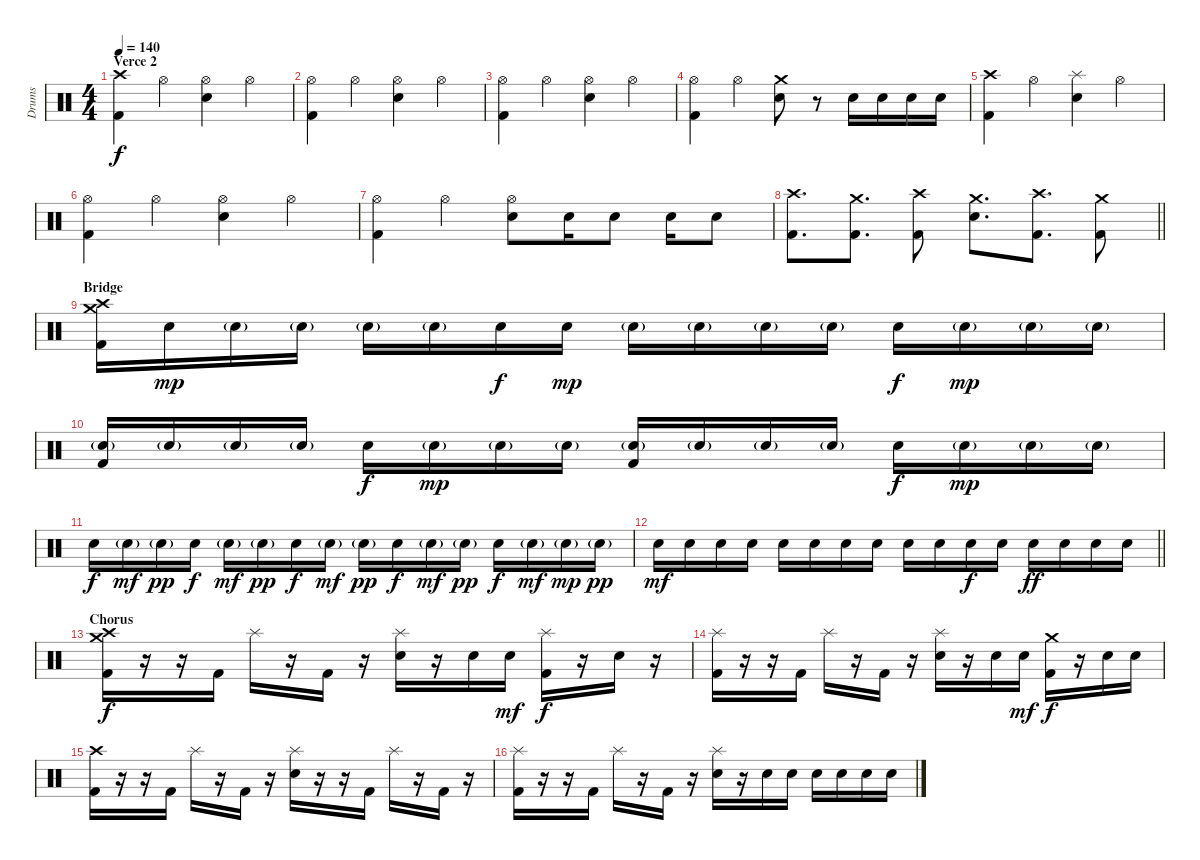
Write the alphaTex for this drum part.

\track ("Drums" "Drums") {instrument percussion}
\staff {score}
\articulation defaults
\ts (4 4)
\section ("" "Verce 2")
\tempo 140
\clef neutral
\ks c
("Crash high (hit)" "Kick (hit) 2").4{dy f} "Hi-Hat (open)".4 ("Hi-Hat (open)" "Electric Snare (hit)").4 "Hi-Hat (open)".4 |
("Hi-Hat (open)" "Kick (hit) 2").4 "Hi-Hat (open)".4 ("Hi-Hat (open)" "Electric Snare (hit)").4 "Hi-Hat (open)".4 |
("Hi-Hat (open)" "Kick (hit) 2").4 "Hi-Hat (open)".4 ("Hi-Hat (open)" "Electric Snare (hit)").4 "Hi-Hat (open)".4 |
("Hi-Hat (open)" "Kick (hit) 2").4 "Hi-Hat (open)".4 ("Crash medium (hit)" "Electric Snare (hit)").8 r.8 "Electric Snare (hit)".16 "Electric Snare (hit)".16 "Electric Snare (hit)".16 "Electric Snare (hit)".16 |
("Crash high (hit)" "Kick (hit) 2").4 "Hi-Hat (open)".4 ("Splash (hit)" "Electric Snare (hit)").4 "Hi-Hat (open)".4 |
("Hi-Hat (open)" "Kick (hit) 2").4 "Hi-Hat (open)".4 ("Hi-Hat (open)" "Electric Snare (hit)").4 "Hi-Hat (open)".4 |
("Hi-Hat (open)" "Kick (hit) 2").4 "Hi-Hat (open)".4 ("Hi-Hat (open)" "Electric Snare (hit)").8 "Electric Snare (hit)".16 "Electric Snare (hit)".8 "Electric Snare (hit)".16 "Electric Snare (hit)".8 |
\barLineRight lightlight
("Crash high (hit)" "Kick (hit) 2").8{d} ("Crash medium (hit)" "Kick (hit) 2").8{d} ("Crash high (hit)" "Kick (hit) 2").8 ("Crash medium (hit)" "Electric Snare (hit)").8{d} ("Crash high (hit)" "Kick (hit) 2").8{d} ("Crash medium (hit)" "Kick (hit) 2").8 |
\section ("" "Bridge")
("Crash high (hit)" "Crash medium (hit)" "Kick (hit) 2").16 "Electric Snare (hit)".16{dy mp} "Electric Snare (hit)"{g}.16 "Electric Snare (hit)"{g}.16 "Electric Snare (hit)"{g}.16 "Electric Snare (hit)"{g}.16 "Electric Snare (hit)".16{dy f} "Electric Snare (hit)".16{dy mp} "Electric Snare (hit)"{g}.16 "Electric Snare (hit)"{g}.16 "Electric Snare (hit)"{g}.16 "Electric Snare (hit)"{g}.16 "Electric Snare (hit)".16{dy f} "Electric Snare (hit)"{g}.16{dy mp} "Electric Snare (hit)"{g}.16 "Electric Snare (hit)"{g}.16 |
("Electric Snare (hit)"{g} "Kick (hit) 2").16 "Electric Snare (hit)"{g}.16 "Electric Snare (hit)"{g}.16 "Electric Snare (hit)"{g}.16 "Electric Snare (hit)".16{dy f} "Electric Snare (hit)"{g}.16{dy mp} "Electric Snare (hit)"{g}.16 "Electric Snare (hit)"{g}.16 ("Electric Snare (hit)"{g} "Kick (hit) 2").16 "Electric Snare (hit)"{g}.16 "Electric Snare (hit)"{g}.16 "Electric Snare (hit)"{g}.16 "Electric Snare (hit)".16{dy f} "Electric Snare (hit)"{g}.16{dy mp} "Electric Snare (hit)"{g}.16 "Electric Snare (hit)"{g}.16 |
"Electric Snare (hit)".16{dy f} "Electric Snare (hit)"{g}.16{dy mf} "Electric Snare (hit)"{g}.16{dy pp} "Electric Snare (hit)".16{dy f} "Electric Snare (hit)"{g}.16{dy mf} "Electric Snare (hit)"{g}.16{dy pp} "Electric Snare (hit)".16{dy f} "Electric Snare (hit)"{g}.16{dy mf} "Electric Snare (hit)"{g}.16{dy pp} "Electric Snare (hit)".16{dy f} "Electric Snare (hit)"{g}.16{dy mf} "Electric Snare (hit)"{g}.16{dy pp} "Electric Snare (hit)".16{dy f} "Electric Snare (hit)"{g}.16{dy mf} "Electric Snare (hit)"{g}.16{dy mp} "Electric Snare (hit)"{g}.16{dy pp} |
\barLineRight lightlight "Electric Snare (hit)".16{dy mf} "Electric Snare (hit)".16 "Electric Snare (hit)".16 "Electric Snare (hit)".16 "Electric Snare (hit)".16 "Electric Snare (hit)".16 "Electric Snare (hit)".16 "Electric Snare (hit)".16 "Electric Snare (hit)".16 "Electric Snare (hit)".16 "Electric Snare (hit)".16{dy f} "Electric Snare (hit)".16 "Electric Snare (hit)".16{dy ff} "Electric Snare (hit)".16 "Electric Snare (hit)".16 "Electric Snare (hit)".16
|
\section ("" "Chorus")
("Crash high (hit)" "Crash medium (hit)" "Kick (hit) 2").16{dy f} r.16 r.16 "Kick (hit) 2".16 "Splash (hit)".16 r.16 "Kick (hit) 2".16 r.16 ("Splash (hit)" "Electric Snare (hit)").16 r.16 "Electric Snare (hit)".16 "Electric Snare (hit)".16{dy mf} ("Splash (hit)" "Kick (hit) 2").16{dy f} r.16 "Electric Snare (hit)".16 r.16 |
("Splash (hit)" "Kick (hit) 2").16 r.16 r.16 "Kick (hit) 2".16 "Splash (hit)".16 r.16 "Kick (hit) 2".16 r.16 ("Splash (hit)" "Electric Snare (hit)").16 r.16 "Electric Snare (hit)".16 "Electric Snare (hit)".16{dy mf} ("Crash medium (hit)" "Kick (hit) 2").16{dy f} r.16 "Electric Snare (hit)".16 "Electric Snare (hit)".16 |
("Crash high (hit)" "Kick (hit) 2").16 r.16 r.16 "Kick (hit) 2".16 "Splash (hit)".16 r.16 "Kick (hit) 2".16 r.16 ("Splash (hit)" "Electric Snare (hit)").16 r.16 r.16 "Kick (hit) 2".16 "Splash (hit)".16 r.16 "Kick (hit) 2".16 r.16 |
("Splash (hit)" "Kick (hit) 2").16 r.16 r.16 "Kick (hit) 2".16 "Splash (hit)".16 r.16 "Kick (hit) 2".16 r.16 ("Splash (hit)" "Electric Snare (hit)").16 r.16 "Electric Snare (hit)".16 "Electric Snare (hit)".16 "Electric Snare (hit)".16 "Electric Snare (hit)".16 "Electric Snare (hit)".16 "Electric Snare (hit)".16
